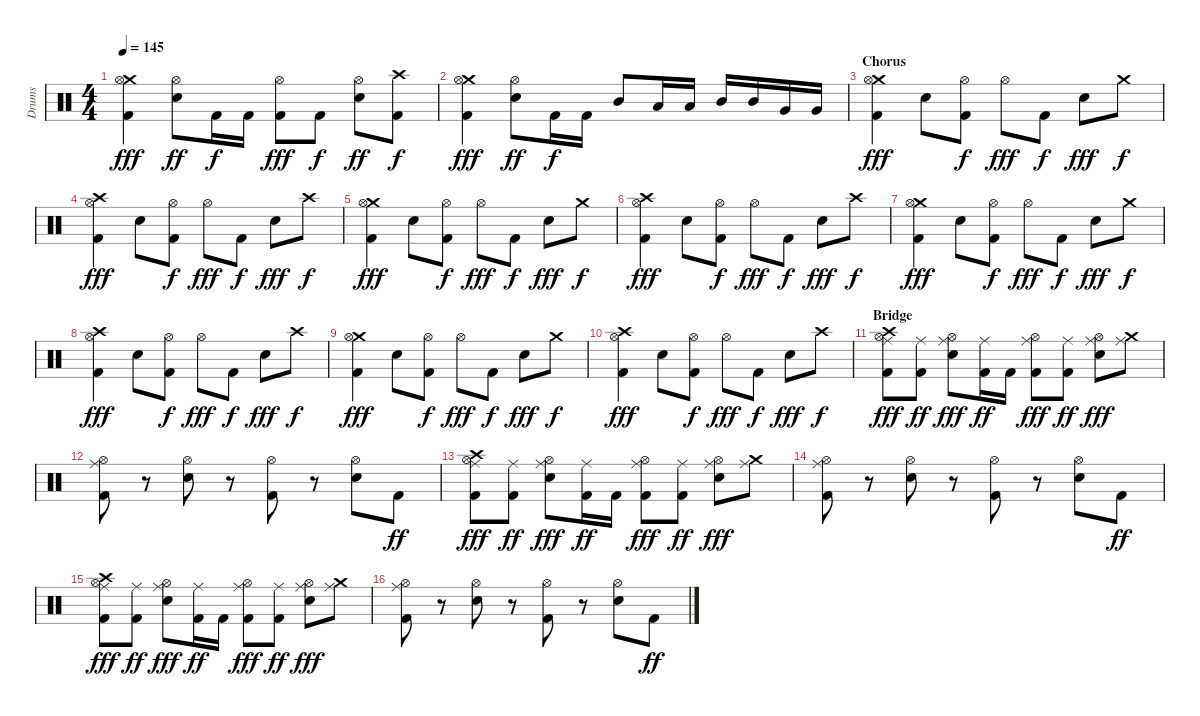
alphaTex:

\track ("Drums" "Drums") {instrument percussion}
\staff {score}
\articulation defaults
\ts (4 4)
\tempo 145
\clef neutral
\ks c
("Crash medium (hit)" "Hi-Hat (open)" "Kick (hit) 2").4{dy fff} ("Hi-Hat (open)" "Snare (hit) 2").8{dy ff} "Kick (hit) 2".16{dy f} "Kick (hit) 2".16 ("Hi-Hat (open)" "Kick (hit) 2").8{dy fff} "Kick (hit) 2".8{dy f} ("Hi-Hat (open)" "Snare (hit) 2").8{dy ff} ("Crash high (hit)" "Kick (hit) 2").8{dy f} |
("Crash medium (hit)" "Hi-Hat (open)" "Kick (hit) 2").4{dy fff} ("Hi-Hat (open)" "Snare (hit) 2").8{dy ff} "Kick (hit) 2".16{dy f} "Kick (hit) 2".16 "Mid Tom (hit)".8 "Low Tom (hit)".16 "Low Tom (hit)".16 "Mid Tom (hit)".16 "Mid Tom (hit)".16 "Very Low Tom (hit)".16 "Very Low Tom (hit)".16 |
\section ("" "Chorus")
("Crash medium (hit)" "Hi-Hat (open)" "Kick (hit) 2").4{dy fff} "Snare (hit) 2".8 ("Hi-Hat (open)" "Kick (hit) 2").8{dy f} "Hi-Hat (open)".8{dy fff} "Kick (hit) 2".8{dy f} "Snare (hit) 2".8{dy fff} "Crash medium (hit)".8{dy f} |
("Crash high (hit)" "Hi-Hat (open)" "Kick (hit) 2").4{dy fff} "Snare (hit) 2".8 ("Hi-Hat (open)" "Kick (hit) 2").8{dy f} "Hi-Hat (open)".8{dy fff} "Kick (hit) 2".8{dy f} "Snare (hit) 2".8{dy fff} "Crash high (hit)".8{dy f} |
("Crash medium (hit)" "Hi-Hat (open)" "Kick (hit) 2").4{dy fff} "Snare (hit) 2".8 ("Hi-Hat (open)" "Kick (hit) 2").8{dy f} "Hi-Hat (open)".8{dy fff} "Kick (hit) 2".8{dy f} "Snare (hit) 2".8{dy fff} "Crash medium (hit)".8{dy f} |
("Crash high (hit)" "Hi-Hat (open)" "Kick (hit) 2").4{dy fff} "Snare (hit) 2".8 ("Hi-Hat (open)" "Kick (hit) 2").8{dy f} "Hi-Hat (open)".8{dy fff} "Kick (hit) 2".8{dy f} "Snare (hit) 2".8{dy fff} "Crash high (hit)".8{dy f} |
("Crash medium (hit)" "Hi-Hat (open)" "Kick (hit) 2").4{dy fff} "Snare (hit) 2".8 ("Hi-Hat (open)" "Kick (hit) 2").8{dy f} "Hi-Hat (open)".8{dy fff} "Kick (hit) 2".8{dy f} "Snare (hit) 2".8{dy fff} "Crash medium (hit)".8{dy f} |
("Crash high (hit)" "Hi-Hat (open)" "Kick (hit) 2").4{dy fff} "Snare (hit) 2".8 ("Hi-Hat (open)" "Kick (hit) 2").8{dy f} "Hi-Hat (open)".8{dy fff} "Kick (hit) 2".8{dy f} "Snare (hit) 2".8{dy fff} "Crash high (hit)".8{dy f} |
("Crash medium (hit)" "Hi-Hat (open)" "Kick (hit) 2").4{dy fff} "Snare (hit) 2".8 ("Hi-Hat (open)" "Kick (hit) 2").8{dy f} "Hi-Hat (open)".8{dy fff} "Kick (hit) 2".8{dy f} "Snare (hit) 2".8{dy fff} "Crash medium (hit)".8{dy f} |
("Crash high (hit)" "Hi-Hat (open)" "Kick (hit) 2").4{dy fff} "Snare (hit) 2".8 ("Hi-Hat (open)" "Kick (hit) 2").8{dy f} "Hi-Hat (open)".8{dy fff} "Kick (hit) 2".8{dy f} "Snare (hit) 2".8{dy fff} "Crash high (hit)".8{dy f} |
\section ("" "Bridge")
("Ride (middle)" "Crash high (hit)" "Hi-Hat (open)" "Kick (hit) 2").8{dy fff} ("Ride (middle)" "Kick (hit) 2").8{dy ff} ("Ride (middle)" "Hi-Hat (open)" "Snare (hit) 2").8{dy fff} ("Ride (middle)" "Kick (hit) 2").16{dy ff} "Kick (hit) 2".16 ("Ride (middle)" "Hi-Hat (open)" "Kick (hit) 2").8{dy fff} ("Ride (middle)" "Kick (hit) 2").8{dy ff} ("Ride (middle)" "Hi-Hat (open)" "Snare (hit) 2").8{dy fff} ("Ride (middle)" "Crash medium (hit)").8 |
("Ride (middle)" "Hi-Hat (open)" "Kick (hit) 2").8 r.8 ("Hi-Hat (open)" "Snare (hit) 2").8 r.8 ("Hi-Hat (open)" "Kick (hit) 2").8 r.8 ("Hi-Hat (open)" "Snare (hit) 2").8 "Kick (hit) 2".8{dy ff} |
("Ride (middle)" "Crash high (hit)" "Hi-Hat (open)" "Kick (hit) 2").8{dy fff} ("Ride (middle)" "Kick (hit) 2").8{dy ff} ("Ride (middle)" "Hi-Hat (open)" "Snare (hit) 2").8{dy fff} ("Ride (middle)" "Kick (hit) 2").16{dy ff} "Kick (hit) 2".16 ("Ride (middle)" "Hi-Hat (open)" "Kick (hit) 2").8{dy fff} ("Ride (middle)" "Kick (hit) 2").8{dy ff} ("Ride (middle)" "Hi-Hat (open)" "Snare (hit) 2").8{dy fff} ("Ride (middle)" "Crash medium (hit)").8 |
("Ride (middle)" "Hi-Hat (open)" "Kick (hit) 2").8 r.8 ("Hi-Hat (open)" "Snare (hit) 2").8 r.8 ("Hi-Hat (open)" "Kick (hit) 2").8 r.8 ("Hi-Hat (open)" "Snare (hit) 2").8 "Kick (hit) 2".8{dy ff} |
("Ride (middle)" "Crash high (hit)" "Hi-Hat (open)" "Kick (hit) 2").8{dy fff} ("Ride (middle)" "Kick (hit) 2").8{dy ff} ("Ride (middle)" "Hi-Hat (open)" "Snare (hit) 2").8{dy fff} ("Ride (middle)" "Kick (hit) 2").16{dy ff} "Kick (hit) 2".16 ("Ride (middle)" "Hi-Hat (open)" "Kick (hit) 2").8{dy fff} ("Ride (middle)" "Kick (hit) 2").8{dy ff} ("Ride (middle)" "Hi-Hat (open)" "Snare (hit) 2").8{dy fff} ("Ride (middle)" "Crash medium (hit)").8 |
("Ride (middle)" "Hi-Hat (open)" "Kick (hit) 2").8 r.8 ("Hi-Hat (open)" "Snare (hit) 2").8 r.8 ("Hi-Hat (open)" "Kick (hit) 2").8 r.8 ("Hi-Hat (open)" "Snare (hit) 2").8 "Kick (hit) 2".8{dy ff}
